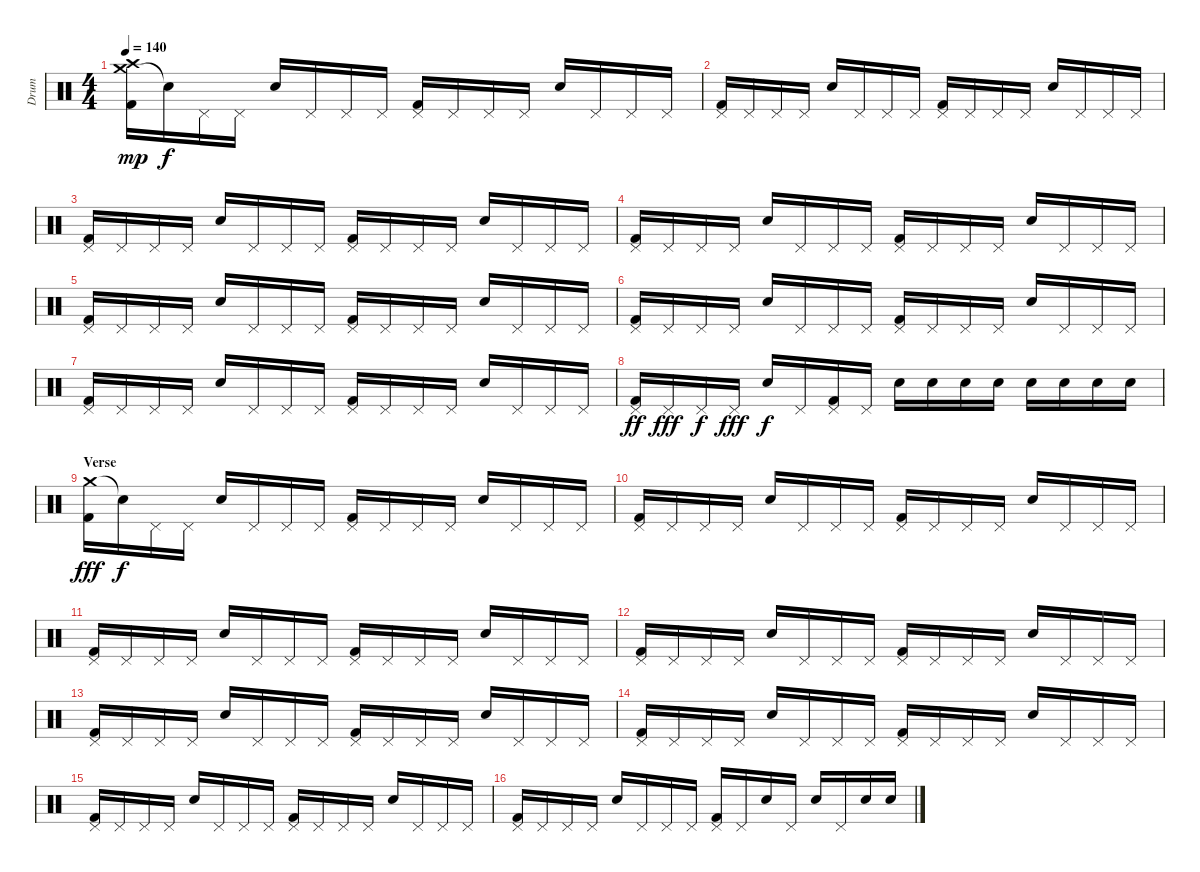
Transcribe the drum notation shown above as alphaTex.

\track ("Drum" "Drum") {instrument percussion}
\staff {score}
\articulation defaults
\ts (4 4)
\tempo 140
\clef neutral
\ks c
("Crash medium (hit)" "Crash high (hit)" "Kick (hit) 2").16{dy mp} "Snare (hit)"{t}.16{dy f} "Pedal Hi-Hat (hit)".16 "Pedal Hi-Hat (hit)".16 "Snare (hit) 2".16 "Pedal Hi-Hat (hit)".16 "Pedal Hi-Hat (hit)".16 "Pedal Hi-Hat (hit)".16 ("Pedal Hi-Hat (hit)" "Kick (hit) 2").16 "Pedal Hi-Hat (hit)".16 "Pedal Hi-Hat (hit)".16 "Pedal Hi-Hat (hit)".16 "Snare (hit) 2".16 "Pedal Hi-Hat (hit)".16 "Pedal Hi-Hat (hit)".16 "Pedal Hi-Hat (hit)".16 |
("Pedal Hi-Hat (hit)" "Kick (hit) 2").16 "Pedal Hi-Hat (hit)".16 "Pedal Hi-Hat (hit)".16 "Pedal Hi-Hat (hit)".16 "Snare (hit) 2".16 "Pedal Hi-Hat (hit)".16 "Pedal Hi-Hat (hit)".16 "Pedal Hi-Hat (hit)".16 ("Pedal Hi-Hat (hit)" "Kick (hit) 2").16 "Pedal Hi-Hat (hit)".16 "Pedal Hi-Hat (hit)".16 "Pedal Hi-Hat (hit)".16 "Snare (hit) 2".16 "Pedal Hi-Hat (hit)".16 "Pedal Hi-Hat (hit)".16 "Pedal Hi-Hat (hit)".16 |
("Pedal Hi-Hat (hit)" "Kick (hit) 2").16 "Pedal Hi-Hat (hit)".16 "Pedal Hi-Hat (hit)".16 "Pedal Hi-Hat (hit)".16 "Snare (hit) 2".16 "Pedal Hi-Hat (hit)".16 "Pedal Hi-Hat (hit)".16 "Pedal Hi-Hat (hit)".16 ("Pedal Hi-Hat (hit)" "Kick (hit) 2").16 "Pedal Hi-Hat (hit)".16 "Pedal Hi-Hat (hit)".16 "Pedal Hi-Hat (hit)".16 "Snare (hit) 2".16 "Pedal Hi-Hat (hit)".16 "Pedal Hi-Hat (hit)".16 "Pedal Hi-Hat (hit)".16 |
("Pedal Hi-Hat (hit)" "Kick (hit) 2").16 "Pedal Hi-Hat (hit)".16 "Pedal Hi-Hat (hit)".16 "Pedal Hi-Hat (hit)".16 "Snare (hit) 2".16 "Pedal Hi-Hat (hit)".16 "Pedal Hi-Hat (hit)".16 "Pedal Hi-Hat (hit)".16 ("Pedal Hi-Hat (hit)" "Kick (hit) 2").16 "Pedal Hi-Hat (hit)".16 "Pedal Hi-Hat (hit)".16 "Pedal Hi-Hat (hit)".16 "Snare (hit) 2".16 "Pedal Hi-Hat (hit)".16 "Pedal Hi-Hat (hit)".16 "Pedal Hi-Hat (hit)".16 |
("Pedal Hi-Hat (hit)" "Kick (hit) 2").16 "Pedal Hi-Hat (hit)".16 "Pedal Hi-Hat (hit)".16 "Pedal Hi-Hat (hit)".16 "Snare (hit) 2".16 "Pedal Hi-Hat (hit)".16 "Pedal Hi-Hat (hit)".16 "Pedal Hi-Hat (hit)".16 ("Pedal Hi-Hat (hit)" "Kick (hit) 2").16 "Pedal Hi-Hat (hit)".16 "Pedal Hi-Hat (hit)".16 "Pedal Hi-Hat (hit)".16 "Snare (hit) 2".16 "Pedal Hi-Hat (hit)".16 "Pedal Hi-Hat (hit)".16 "Pedal Hi-Hat (hit)".16 |
("Pedal Hi-Hat (hit)" "Kick (hit) 2").16 "Pedal Hi-Hat (hit)".16 "Pedal Hi-Hat (hit)".16 "Pedal Hi-Hat (hit)".16 "Snare (hit) 2".16 "Pedal Hi-Hat (hit)".16 "Pedal Hi-Hat (hit)".16 "Pedal Hi-Hat (hit)".16 ("Pedal Hi-Hat (hit)" "Kick (hit) 2").16 "Pedal Hi-Hat (hit)".16 "Pedal Hi-Hat (hit)".16 "Pedal Hi-Hat (hit)".16 "Snare (hit) 2".16 "Pedal Hi-Hat (hit)".16 "Pedal Hi-Hat (hit)".16 "Pedal Hi-Hat (hit)".16 |
("Pedal Hi-Hat (hit)" "Kick (hit) 2").16 "Pedal Hi-Hat (hit)".16 "Pedal Hi-Hat (hit)".16 "Pedal Hi-Hat (hit)".16 "Snare (hit) 2".16 "Pedal Hi-Hat (hit)".16 "Pedal Hi-Hat (hit)".16 "Pedal Hi-Hat (hit)".16 ("Pedal Hi-Hat (hit)" "Kick (hit) 2").16 "Pedal Hi-Hat (hit)".16 "Pedal Hi-Hat (hit)".16 "Pedal Hi-Hat (hit)".16 "Snare (hit) 2".16 "Pedal Hi-Hat (hit)".16 "Pedal Hi-Hat (hit)".16 "Pedal Hi-Hat (hit)".16 |
("Pedal Hi-Hat (hit)" "Kick (hit) 2").16{dy ff} "Pedal Hi-Hat (hit)".16{dy fff} "Pedal Hi-Hat (hit)".16{dy f} "Pedal Hi-Hat (hit)".16{dy fff} "Snare (hit) 2".16{dy f} "Pedal Hi-Hat (hit)".16 ("Pedal Hi-Hat (hit)" "Kick (hit) 2").16 "Pedal Hi-Hat (hit)".16 "Snare (hit) 2".16 "Snare (hit) 2".16 "Snare (hit) 2".16 "Snare (hit) 2".16 "Snare (hit) 2".16 "Snare (hit) 2".16 "Snare (hit) 2".16 "Snare (hit) 2".16 |
\section ("" "Verse")
("Crash medium (hit)" "Kick (hit) 2").16{dy fff} "Snare (hit)"{t}.16{dy f} "Pedal Hi-Hat (hit)".16 "Pedal Hi-Hat (hit)".16 "Snare (hit) 2".16 "Pedal Hi-Hat (hit)".16 "Pedal Hi-Hat (hit)".16 "Pedal Hi-Hat (hit)".16 ("Pedal Hi-Hat (hit)" "Kick (hit) 2").16 "Pedal Hi-Hat (hit)".16 "Pedal Hi-Hat (hit)".16 "Pedal Hi-Hat (hit)".16 "Snare (hit) 2".16 "Pedal Hi-Hat (hit)".16 "Pedal Hi-Hat (hit)".16 "Pedal Hi-Hat (hit)".16 |
("Pedal Hi-Hat (hit)" "Kick (hit) 2").16 "Pedal Hi-Hat (hit)".16 "Pedal Hi-Hat (hit)".16 "Pedal Hi-Hat (hit)".16 "Snare (hit) 2".16 "Pedal Hi-Hat (hit)".16 "Pedal Hi-Hat (hit)".16 "Pedal Hi-Hat (hit)".16 ("Pedal Hi-Hat (hit)" "Kick (hit) 2").16 "Pedal Hi-Hat (hit)".16 "Pedal Hi-Hat (hit)".16 "Pedal Hi-Hat (hit)".16 "Snare (hit) 2".16 "Pedal Hi-Hat (hit)".16 "Pedal Hi-Hat (hit)".16 "Pedal Hi-Hat (hit)".16 |
("Pedal Hi-Hat (hit)" "Kick (hit) 2").16 "Pedal Hi-Hat (hit)".16 "Pedal Hi-Hat (hit)".16 "Pedal Hi-Hat (hit)".16 "Snare (hit) 2".16 "Pedal Hi-Hat (hit)".16 "Pedal Hi-Hat (hit)".16 "Pedal Hi-Hat (hit)".16 ("Pedal Hi-Hat (hit)" "Kick (hit) 2").16 "Pedal Hi-Hat (hit)".16 "Pedal Hi-Hat (hit)".16 "Pedal Hi-Hat (hit)".16 "Snare (hit) 2".16 "Pedal Hi-Hat (hit)".16 "Pedal Hi-Hat (hit)".16 "Pedal Hi-Hat (hit)".16 |
("Pedal Hi-Hat (hit)" "Kick (hit) 2").16 "Pedal Hi-Hat (hit)".16 "Pedal Hi-Hat (hit)".16 "Pedal Hi-Hat (hit)".16 "Snare (hit) 2".16 "Pedal Hi-Hat (hit)".16 "Pedal Hi-Hat (hit)".16 "Pedal Hi-Hat (hit)".16 ("Pedal Hi-Hat (hit)" "Kick (hit) 2").16 "Pedal Hi-Hat (hit)".16 "Pedal Hi-Hat (hit)".16 "Pedal Hi-Hat (hit)".16 "Snare (hit) 2".16 "Pedal Hi-Hat (hit)".16 "Pedal Hi-Hat (hit)".16 "Pedal Hi-Hat (hit)".16 |
("Pedal Hi-Hat (hit)" "Kick (hit) 2").16 "Pedal Hi-Hat (hit)".16 "Pedal Hi-Hat (hit)".16 "Pedal Hi-Hat (hit)".16 "Snare (hit) 2".16 "Pedal Hi-Hat (hit)".16 "Pedal Hi-Hat (hit)".16 "Pedal Hi-Hat (hit)".16 ("Pedal Hi-Hat (hit)" "Kick (hit) 2").16 "Pedal Hi-Hat (hit)".16 "Pedal Hi-Hat (hit)".16 "Pedal Hi-Hat (hit)".16 "Snare (hit) 2".16 "Pedal Hi-Hat (hit)".16 "Pedal Hi-Hat (hit)".16 "Pedal Hi-Hat (hit)".16 |
("Pedal Hi-Hat (hit)" "Kick (hit) 2").16 "Pedal Hi-Hat (hit)".16 "Pedal Hi-Hat (hit)".16 "Pedal Hi-Hat (hit)".16 "Snare (hit) 2".16 "Pedal Hi-Hat (hit)".16 "Pedal Hi-Hat (hit)".16 "Pedal Hi-Hat (hit)".16 ("Pedal Hi-Hat (hit)" "Kick (hit) 2").16 "Pedal Hi-Hat (hit)".16 "Pedal Hi-Hat (hit)".16 "Pedal Hi-Hat (hit)".16 "Snare (hit) 2".16 "Pedal Hi-Hat (hit)".16 "Pedal Hi-Hat (hit)".16 "Pedal Hi-Hat (hit)".16 |
("Pedal Hi-Hat (hit)" "Kick (hit) 2").16 "Pedal Hi-Hat (hit)".16 "Pedal Hi-Hat (hit)".16 "Pedal Hi-Hat (hit)".16 "Snare (hit) 2".16 "Pedal Hi-Hat (hit)".16 "Pedal Hi-Hat (hit)".16 "Pedal Hi-Hat (hit)".16 ("Pedal Hi-Hat (hit)" "Kick (hit) 2").16 "Pedal Hi-Hat (hit)".16 "Pedal Hi-Hat (hit)".16 "Pedal Hi-Hat (hit)".16 "Snare (hit) 2".16 "Pedal Hi-Hat (hit)".16 "Pedal Hi-Hat (hit)".16 "Pedal Hi-Hat (hit)".16 |
("Pedal Hi-Hat (hit)" "Kick (hit) 2").16 "Pedal Hi-Hat (hit)".16 "Pedal Hi-Hat (hit)".16 "Pedal Hi-Hat (hit)".16 "Snare (hit) 2".16 "Pedal Hi-Hat (hit)".16 "Pedal Hi-Hat (hit)".16 "Pedal Hi-Hat (hit)".16 ("Pedal Hi-Hat (hit)" "Kick (hit) 2").16 "Pedal Hi-Hat (hit)".16 "Snare (hit) 2".16 "Pedal Hi-Hat (hit)".16 "Snare (hit) 2".16 "Pedal Hi-Hat (hit)".16 "Snare (hit) 2".16 "Snare (hit) 2".16
